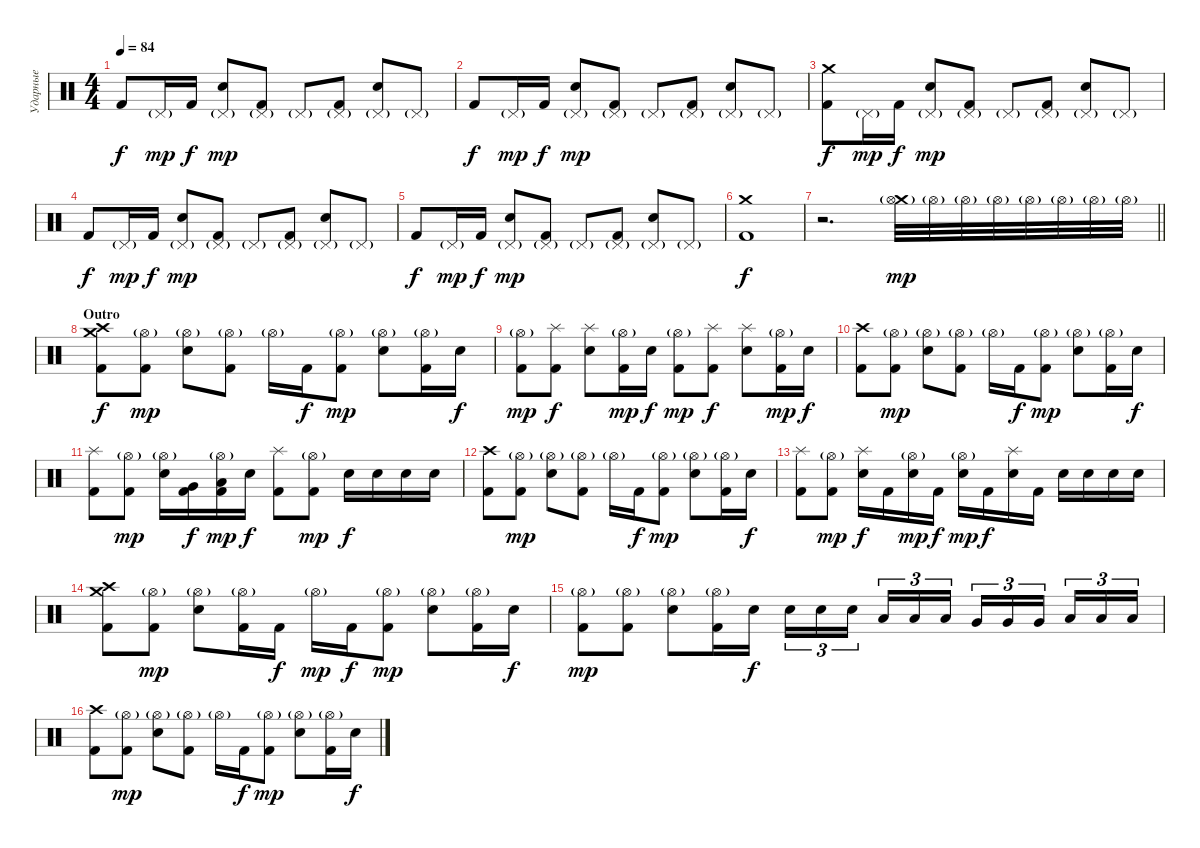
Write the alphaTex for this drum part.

\track ("Ударные" "Ударные") {instrument percussion}
\staff {score}
\articulation defaults
\ts (4 4)
\tempo 84
\clef neutral
\ks c "Kick (hit) 2".8{dy f} "Pedal Hi-Hat (hit)"{g}.16{dy mp} "Kick (hit) 2".16{dy f}
("Pedal Hi-Hat (hit)"{g} "Electric Snare (hit)").8{dy mp} ("Pedal Hi-Hat (hit)"{g} "Kick (hit) 2").8 "Pedal Hi-Hat (hit)"{g}.8 ("Pedal Hi-Hat (hit)"{g} "Kick (hit) 2").8 ("Pedal Hi-Hat (hit)"{g} "Electric Snare (hit)").8 "Pedal Hi-Hat (hit)"{g}.8 |
"Kick (hit) 2".8{dy f} "Pedal Hi-Hat (hit)"{g}.16{dy mp} "Kick (hit) 2".16{dy f} ("Pedal Hi-Hat (hit)"{g} "Electric Snare (hit)").8{dy mp} ("Pedal Hi-Hat (hit)"{g} "Kick (hit) 2").8 "Pedal Hi-Hat (hit)"{g}.8 ("Pedal Hi-Hat (hit)"{g} "Kick (hit) 2").8 ("Pedal Hi-Hat (hit)"{g} "Electric Snare (hit)").8 "Pedal Hi-Hat (hit)"{g}.8 |
("Crash medium (hit)" "Kick (hit) 2").8{dy f} "Pedal Hi-Hat (hit)"{g}.16{dy mp} "Kick (hit) 2".16{dy f} ("Pedal Hi-Hat (hit)"{g} "Electric Snare (hit)").8{dy mp} ("Pedal Hi-Hat (hit)"{g} "Kick (hit) 2").8 "Pedal Hi-Hat (hit)"{g}.8 ("Pedal Hi-Hat (hit)"{g} "Kick (hit) 2").8 ("Pedal Hi-Hat (hit)"{g} "Electric Snare (hit)").8 "Pedal Hi-Hat (hit)"{g}.8 |
"Kick (hit) 2".8{dy f} "Pedal Hi-Hat (hit)"{g}.16{dy mp} "Kick (hit) 2".16{dy f} ("Pedal Hi-Hat (hit)"{g} "Electric Snare (hit)").8{dy mp} ("Pedal Hi-Hat (hit)"{g} "Kick (hit) 2").8 "Pedal Hi-Hat (hit)"{g}.8 ("Pedal Hi-Hat (hit)"{g} "Kick (hit) 2").8 ("Pedal Hi-Hat (hit)"{g} "Electric Snare (hit)").8 "Pedal Hi-Hat (hit)"{g}.8 |
"Kick (hit) 2".8{dy f} "Pedal Hi-Hat (hit)"{g}.16{dy mp} "Kick (hit) 2".16{dy f} ("Pedal Hi-Hat (hit)"{g} "Electric Snare (hit)").8{dy mp} ("Pedal Hi-Hat (hit)"{g} "Kick (hit) 2").8 "Pedal Hi-Hat (hit)"{g}.8 ("Pedal Hi-Hat (hit)"{g} "Kick (hit) 2").8 ("Pedal Hi-Hat (hit)"{g} "Electric Snare (hit)").8 "Pedal Hi-Hat (hit)"{g}.8 |
("Crash medium (hit)" "Kick (hit) 2").1{dy f} |
\barLineRight lightlight
r.2{d volume 6} ("Crash medium (hit)"{g} "Hi-Hat (open)"{g}).32{dy mp volume 11} "Hi-Hat (open)"{g}.32 "Hi-Hat (open)"{g}.32 "Hi-Hat (open)"{g}.32 "Hi-Hat (open)"{g}.32 "Hi-Hat (open)"{g}.32 "Hi-Hat (open)"{g}.32 "Hi-Hat (open)"{g}.32 |
\section ("" "Outro")
("Crash high (hit)" "Crash medium (hit)" "Kick (hit) 2").8{dy f} ("Hi-Hat (open)"{g} "Kick (hit) 2").8{dy mp} ("Hi-Hat (open)"{g} "Electric Snare (hit)").8 ("Hi-Hat (open)"{g} "Kick (hit) 2").8 "Hi-Hat (open)"{g}.16 "Kick (hit) 2".16{dy f} ("Hi-Hat (open)"{g} "Kick (hit) 2").8{dy mp} ("Hi-Hat (open)"{g} "Electric Snare (hit)").8 ("Hi-Hat (open)"{g} "Kick (hit) 2").16 "Electric Snare (hit)".16{dy f} |
("Hi-Hat (open)"{g} "Kick (hit) 2").8{dy mp} ("Splash (hit)" "Kick (hit) 2").8{dy f} ("Splash (hit)" "Electric Snare (hit)").8 ("Hi-Hat (open)"{g} "Kick (hit) 2").16{dy mp} "Electric Snare (hit)".16{dy f} ("Hi-Hat (open)"{g} "Kick (hit) 2").8{dy mp} ("Splash (hit)" "Kick (hit) 2").8{dy f} ("Splash (hit)" "Electric Snare (hit)").8 ("Hi-Hat (open)"{g} "Kick (hit) 2").16{dy mp} "Electric Snare (hit)".16{dy f} |
("Crash high (hit)" "Kick (hit) 2").8 ("Hi-Hat (open)"{g} "Kick (hit) 2").8{dy mp} ("Hi-Hat (open)"{g} "Electric Snare (hit)").8 ("Hi-Hat (open)"{g} "Kick (hit) 2").8 "Hi-Hat (open)"{g}.16 "Kick (hit) 2".16{dy f} ("Hi-Hat (open)"{g} "Kick (hit) 2").8{dy mp} ("Hi-Hat (open)"{g} "Electric Snare (hit)").8 ("Hi-Hat (open)"{g} "Kick (hit) 2").16 "Electric Snare (hit)".16{dy f} |
("Splash (hit)" "Kick (hit) 2").8 ("Hi-Hat (open)"{g} "Kick (hit) 2").8{dy mp} ("Hi-Hat (open)"{g} "Electric Snare (hit)").16 ("Very Low Tom (hit)" "Kick (hit) 2").16{dy f} ("Hi-Hat (open)"{g} "Low Floor Tom (hit)" "Kick (hit) 2").16{dy mp} "Electric Snare (hit)".16{dy f} ("Splash (hit)" "Kick (hit) 2").8 ("Hi-Hat (open)"{g} "Kick (hit) 2").8{dy mp} "Electric Snare (hit)".16{dy f} "Electric Snare (hit)".16 "Electric Snare (hit)".16 "Electric Snare (hit)".16 |
("Crash high (hit)" "Kick (hit) 2").8 ("Hi-Hat (open)"{g} "Kick (hit) 2").8{dy mp} ("Hi-Hat (open)"{g} "Electric Snare (hit)").8 ("Hi-Hat (open)"{g} "Kick (hit) 2").8 "Hi-Hat (open)"{g}.16 "Kick (hit) 2".16{dy f} ("Hi-Hat (open)"{g} "Kick (hit) 2").8{dy mp} ("Hi-Hat (open)"{g} "Electric Snare (hit)").8 ("Hi-Hat (open)"{g} "Kick (hit) 2").16 "Electric Snare (hit)".16{dy f} |
("Splash (hit)" "Kick (hit) 2").8 ("Hi-Hat (open)"{g} "Kick (hit) 2").8{dy mp} ("Splash (hit)" "Electric Snare (hit)").16{dy f} "Kick (hit) 2".16 ("Hi-Hat (open)"{g} "Electric Snare (hit)").16{dy mp} "Kick (hit) 2".16{dy f} ("Hi-Hat (open)"{g} "Electric Snare (hit)").16{dy mp} "Kick (hit) 2".16{dy f} ("Splash (hit)" "Electric Snare (hit)").16 "Kick (hit) 2".16 "Electric Snare (hit)".16 "Electric Snare (hit)".16 "Electric Snare (hit)".16 "Electric Snare (hit)".16 |
("Crash high (hit)" "Crash medium (hit)" "Kick (hit) 2").8 ("Hi-Hat (open)"{g} "Kick (hit) 2").8{dy mp} ("Hi-Hat (open)"{g} "Electric Snare (hit)").8 ("Hi-Hat (open)"{g} "Kick (hit) 2").16 "Kick (hit) 2".16{dy f} "Hi-Hat (open)"{g}.16{dy mp} "Kick (hit) 2".16{dy f} ("Hi-Hat (open)"{g} "Kick (hit) 2").8{dy mp} ("Hi-Hat (open)"{g} "Electric Snare (hit)").8 ("Hi-Hat (open)"{g} "Kick (hit) 2").16 "Electric Snare (hit)".16{dy f} |
("Hi-Hat (open)"{g} "Kick (hit) 2").8{dy mp} ("Hi-Hat (open)"{g} "Kick (hit) 2").8 ("Hi-Hat (open)"{g} "Electric Snare (hit)").8 ("Hi-Hat (open)"{g} "Kick (hit) 2").16 "Electric Snare (hit)".16{dy f} "Electric Snare (hit)".16{tu (3 2)} "Electric Snare (hit)".16{tu (3 2)} "Electric Snare (hit)".16{tu (3 2) beam splitsecondary} "Low Tom (hit)".16{tu (3 2)} "Low Tom (hit)".16{tu (3 2)} "Low Tom (hit)".16{tu (3 2)} "Very Low Tom (hit)".16{tu (3 2)} "Very Low Tom (hit)".16{tu (3 2)} "Very Low Tom (hit)".16{tu (3 2) beam splitsecondary} "Low Floor Tom (hit)".16{tu (3 2)} "Low Floor Tom (hit)".16{tu (3 2)} "Low Floor Tom (hit)".16{tu (3 2)} |
("Crash high (hit)" "Kick (hit) 2").8 ("Hi-Hat (open)"{g} "Kick (hit) 2").8{dy mp} ("Hi-Hat (open)"{g} "Electric Snare (hit)").8 ("Hi-Hat (open)"{g} "Kick (hit) 2").8 "Hi-Hat (open)"{g}.16 "Kick (hit) 2".16{dy f} ("Hi-Hat (open)"{g} "Kick (hit) 2").8{dy mp} ("Hi-Hat (open)"{g} "Electric Snare (hit)").8 ("Hi-Hat (open)"{g} "Kick (hit) 2").16 "Electric Snare (hit)".16{dy f}
